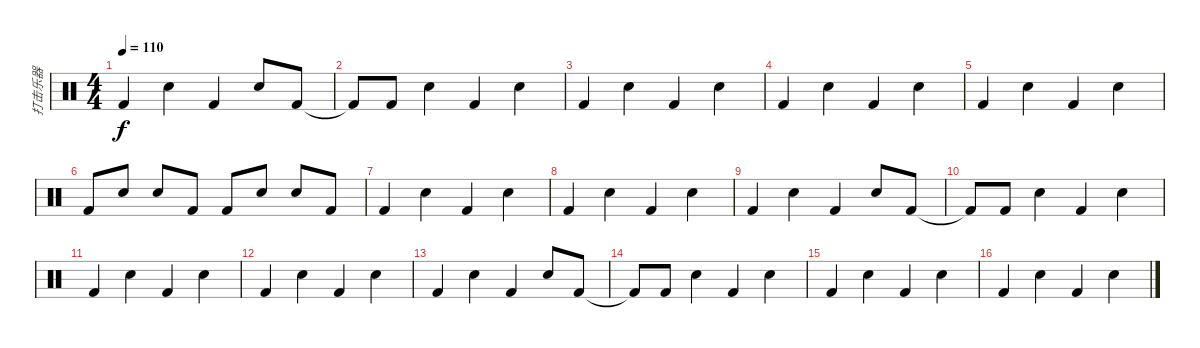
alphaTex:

\track ("打击乐器" "打击乐器") {instrument percussion}
\staff {score}
\articulation defaults
\ts (4 4)
\tempo 110
\clef neutral
\ks c "Kick (hit) 2".4{dy f} "Snare (hit) 2".4 "Kick (hit) 2".4 "Snare (hit) 2".8 "Kick (hit) 2".8
|
"Kick (hit) 2"{t}.8 "Kick (hit) 2".8 "Snare (hit) 2".4 "Kick (hit) 2".4 "Snare (hit) 2".4 |
"Kick (hit) 2".4 "Snare (hit) 2".4 "Kick (hit) 2".4 "Snare (hit) 2".4 |
"Kick (hit) 2".4 "Snare (hit) 2".4 "Kick (hit) 2".4 "Snare (hit) 2".4 |
"Kick (hit) 2".4 "Snare (hit) 2".4 "Kick (hit) 2".4 "Snare (hit) 2".4 |
"Kick (hit) 2".8 "Snare (hit) 2".8 "Snare (hit) 2".8 "Kick (hit) 2".8 "Kick (hit) 2".8 "Snare (hit) 2".8 "Snare (hit) 2".8 "Kick (hit) 2".8 |
"Kick (hit) 2".4 "Snare (hit) 2".4 "Kick (hit) 2".4 "Snare (hit) 2".4 |
"Kick (hit) 2".4 "Snare (hit) 2".4 "Kick (hit) 2".4 "Snare (hit) 2".4 |
"Kick (hit) 2".4 "Snare (hit) 2".4 "Kick (hit) 2".4 "Snare (hit) 2".8 "Kick (hit) 2".8 |
"Kick (hit) 2"{t}.8 "Kick (hit) 2".8 "Snare (hit) 2".4 "Kick (hit) 2".4 "Snare (hit) 2".4 |
"Kick (hit) 2".4 "Snare (hit) 2".4 "Kick (hit) 2".4 "Snare (hit) 2".4 |
"Kick (hit) 2".4 "Snare (hit) 2".4 "Kick (hit) 2".4 "Snare (hit) 2".4 |
"Kick (hit) 2".4 "Snare (hit) 2".4 "Kick (hit) 2".4 "Snare (hit) 2".8 "Kick (hit) 2".8 |
"Kick (hit) 2"{t}.8 "Kick (hit) 2".8 "Snare (hit) 2".4 "Kick (hit) 2".4 "Snare (hit) 2".4 |
"Kick (hit) 2".4 "Snare (hit) 2".4 "Kick (hit) 2".4 "Snare (hit) 2".4 |
"Kick (hit) 2".4 "Snare (hit) 2".4 "Kick (hit) 2".4 "Snare (hit) 2".4
